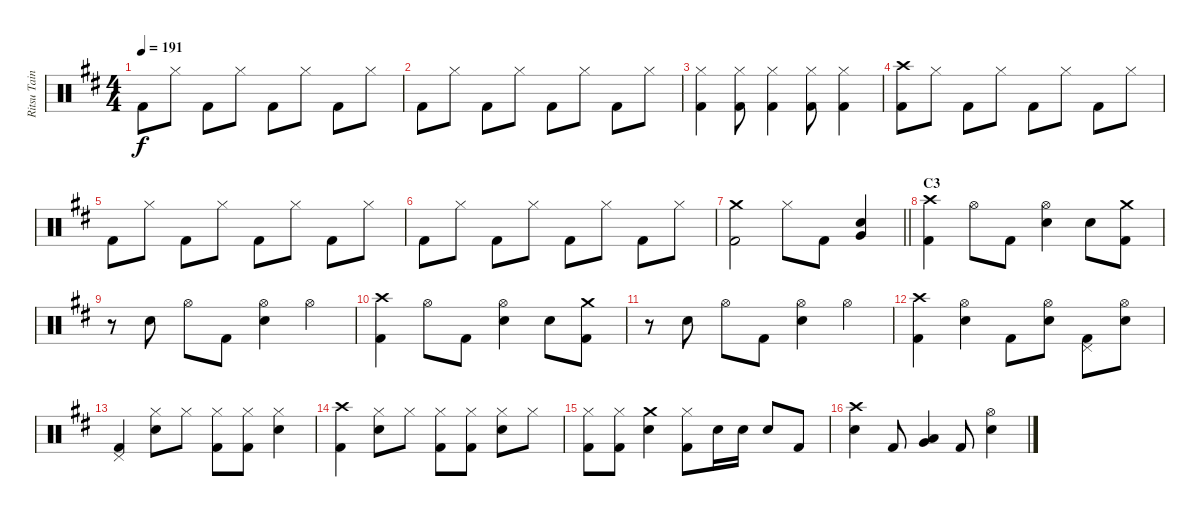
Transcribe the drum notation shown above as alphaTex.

\track ("Ritsu Tainaka" "Ritsu Tain") {instrument percussion}
\staff {score}
\articulation defaults
\ts (4 4)
\tempo 191
\clef neutral
\ks d "Kick (hit) 2".8{dy f} "Hi-Hat (closed)".8 "Kick (hit) 2".8 "Hi-Hat (closed)".8 "Kick (hit) 2".8 "Hi-Hat (closed)".8 "Kick (hit) 2".8 "Hi-Hat (closed)".8
|
"Kick (hit) 2".8 "Hi-Hat (closed)".8 "Kick (hit) 2".8 "Hi-Hat (closed)".8 "Kick (hit) 2".8 "Hi-Hat (closed)".8 "Kick (hit) 2".8 "Hi-Hat (closed)".8 |
("Hi-Hat (closed)" "Kick (hit) 2").4 ("Hi-Hat (closed)" "Kick (hit) 2").8 ("Hi-Hat (closed)" "Kick (hit) 2").4 ("Hi-Hat (closed)" "Kick (hit) 2").8 ("Hi-Hat (closed)" "Kick (hit) 2").4 |
("Crash high (hit)" "Kick (hit) 2").8 "Hi-Hat (closed)".8 "Kick (hit) 2".8 "Hi-Hat (closed)".8 "Kick (hit) 2".8 "Hi-Hat (closed)".8 "Kick (hit) 2".8 "Hi-Hat (closed)".8 |
"Kick (hit) 2".8 "Hi-Hat (closed)".8 "Kick (hit) 2".8 "Hi-Hat (closed)".8 "Kick (hit) 2".8 "Hi-Hat (closed)".8 "Kick (hit) 2".8 "Hi-Hat (closed)".8 |
"Kick (hit) 2".8 "Hi-Hat (closed)".8 "Kick (hit) 2".8 "Hi-Hat (closed)".8 "Kick (hit) 2".8 "Hi-Hat (closed)".8 "Kick (hit) 2".8 "Hi-Hat (closed)".8 |
\barLineRight lightlight
("Crash medium (hit)" "Kick (hit) 2").2 "Hi-Hat (closed)".8 "Kick (hit) 2".8 ("Electric Snare (hit)" "Very Low Tom (hit)").4 |
\section ("" "C3")
("Crash high (hit)" "Kick (hit) 2").4 "Hi-Hat (open)".8 "Kick (hit) 2".8 ("Hi-Hat (open)" "Electric Snare (hit)").4 "Electric Snare (hit)".8 ("Crash medium (hit)" "Kick (hit) 2").8 |
r.8 "Electric Snare (hit)".8 "Hi-Hat (open)".8 "Kick (hit) 2".8 ("Hi-Hat (open)" "Electric Snare (hit)").4 "Hi-Hat (open)".4 |
("Crash high (hit)" "Kick (hit) 2").4 "Hi-Hat (open)".8 "Kick (hit) 2".8 ("Hi-Hat (open)" "Electric Snare (hit)").4 "Electric Snare (hit)".8 ("Crash medium (hit)" "Kick (hit) 2").8 |
r.8 "Electric Snare (hit)".8 "Hi-Hat (open)".8 "Kick (hit) 2".8 ("Hi-Hat (open)" "Electric Snare (hit)").4 "Hi-Hat (open)".4 |
("Crash high (hit)" "Kick (hit) 2").4 ("Hi-Hat (open)" "Electric Snare (hit)").4 "Kick (hit) 2".8 ("Hi-Hat (open)" "Electric Snare (hit)").8 ("Pedal Hi-Hat (hit)" "Kick (hit) 2").8 ("Hi-Hat (open)" "Electric Snare (hit)").8 |
("Pedal Hi-Hat (hit)" "Kick (hit) 2").4 ("Hi-Hat (closed)" "Electric Snare (hit)").8 "Hi-Hat (closed)".8 ("Hi-Hat (closed)" "Kick (hit) 2").8 ("Hi-Hat (closed)" "Kick (hit) 2").8 ("Hi-Hat (closed)" "Electric Snare (hit)").4 |
("Crash high (hit)" "Kick (hit) 2").4 ("Hi-Hat (closed)" "Electric Snare (hit)").8 "Hi-Hat (closed)".8 ("Hi-Hat (closed)" "Kick (hit) 2").8 ("Hi-Hat (closed)" "Kick (hit) 2").8 ("Hi-Hat (closed)" "Electric Snare (hit)").8 "Hi-Hat (closed)".8 |
("Hi-Hat (closed)" "Kick (hit) 2").8 ("Hi-Hat (closed)" "Kick (hit) 2").8 ("Crash medium (hit)" "Electric Snare (hit)").4 ("Hi-Hat (closed)" "Kick (hit) 2").8 "Electric Snare (hit)".16 "Electric Snare (hit)".16 "Electric Snare (hit)".8 "Kick (hit) 2".8 |
("Crash high (hit)" "Electric Snare (hit)").4 "Kick (hit) 2".8 ("Low Tom (hit)" "Very Low Tom (hit)").4 "Kick (hit) 2".8 ("Hi-Hat (open)" "Electric Snare (hit)").4
